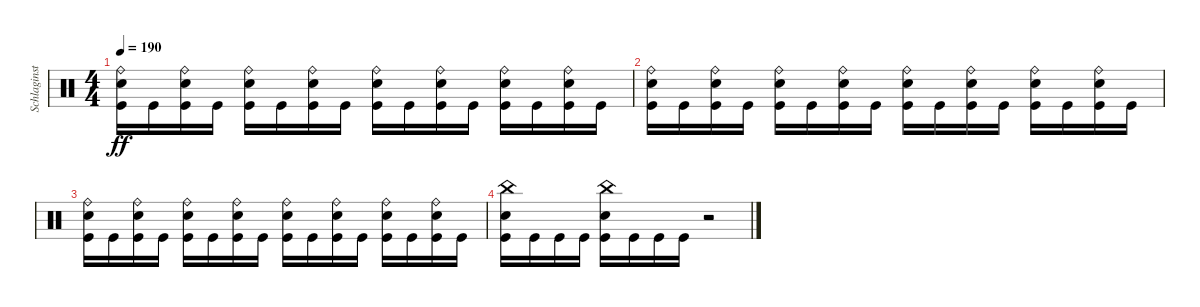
\track ("Schlaginstrumente - Auswahl" "Schlaginst") {instrument percussion}
\staff {score}
\articulation defaults
\ts (4 4)
\tempo 190
\clef neutral
\ks c
("Ride (bell)" "Electric Snare (hit)" "Kick (hit)").16{dy ff} "Kick (hit)".16 ("Ride (bell)" "Electric Snare (hit)" "Kick (hit)").16 "Kick (hit)".16 ("Ride (bell)" "Electric Snare (hit)" "Kick (hit)").16 "Kick (hit)".16 ("Ride (bell)" "Electric Snare (hit)" "Kick (hit)").16 "Kick (hit)".16 ("Ride (bell)" "Electric Snare (hit)" "Kick (hit)").16 "Kick (hit)".16 ("Ride (bell)" "Electric Snare (hit)" "Kick (hit)").16 "Kick (hit)".16 ("Ride (bell)" "Electric Snare (hit)" "Kick (hit)").16 "Kick (hit)".16 ("Ride (bell)" "Electric Snare (hit)" "Kick (hit)").16 "Kick (hit)".16 |
("Ride (bell)" "Electric Snare (hit)" "Kick (hit)").16 "Kick (hit)".16 ("Ride (bell)" "Electric Snare (hit)" "Kick (hit)").16 "Kick (hit)".16 ("Ride (bell)" "Electric Snare (hit)" "Kick (hit)").16 "Kick (hit)".16 ("Ride (bell)" "Electric Snare (hit)" "Kick (hit)").16 "Kick (hit)".16 ("Ride (bell)" "Electric Snare (hit)" "Kick (hit)").16 "Kick (hit)".16 ("Ride (bell)" "Electric Snare (hit)" "Kick (hit)").16 "Kick (hit)".16 ("Ride (bell)" "Electric Snare (hit)" "Kick (hit)").16 "Kick (hit)".16 ("Ride (bell)" "Electric Snare (hit)" "Kick (hit)").16 "Kick (hit)".16 |
("Ride (bell)" "Electric Snare (hit)" "Kick (hit)").16 "Kick (hit)".16 ("Ride (bell)" "Electric Snare (hit)" "Kick (hit)").16 "Kick (hit)".16 ("Ride (bell)" "Electric Snare (hit)" "Kick (hit)").16 "Kick (hit)".16 ("Ride (bell)" "Electric Snare (hit)" "Kick (hit)").16 "Kick (hit)".16 ("Ride (bell)" "Electric Snare (hit)" "Kick (hit)").16 "Kick (hit)".16 ("Ride (bell)" "Electric Snare (hit)" "Kick (hit)").16 "Kick (hit)".16 ("Ride (bell)" "Electric Snare (hit)" "Kick (hit)").16 "Kick (hit)".16 ("Ride (bell)" "Electric Snare (hit)" "Kick (hit)").16 "Kick (hit)".16 |
("China (hit)" "Electric Snare (hit)" "Kick (hit)").16 "Kick (hit)".16 "Kick (hit)".16 "Kick (hit)".16 ("China (hit)" "Electric Snare (hit)" "Kick (hit)").16 "Kick (hit)".16 "Kick (hit)".16 "Kick (hit)".16 r.2
